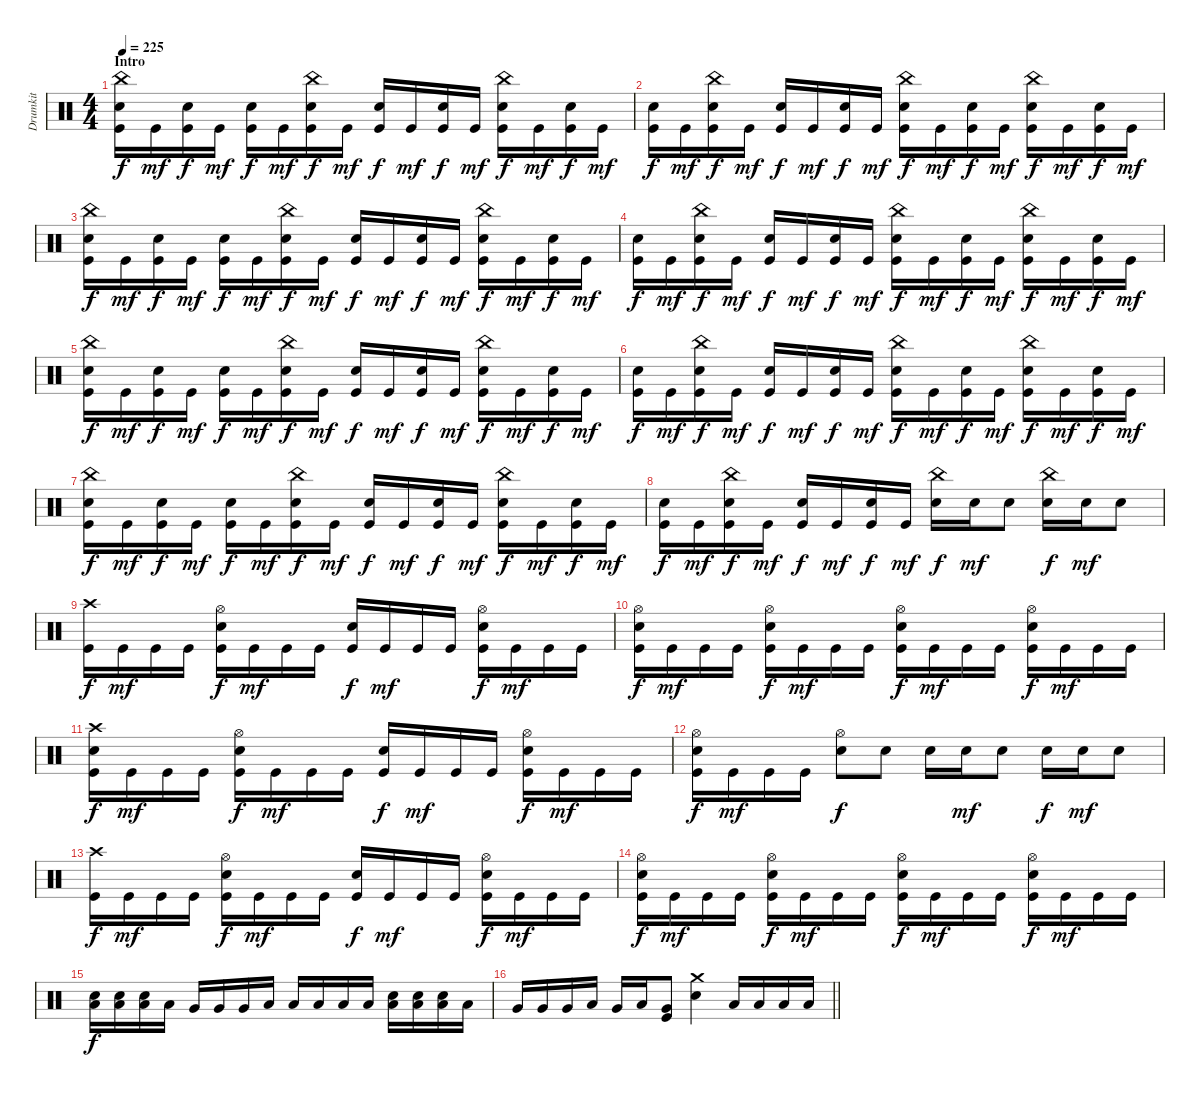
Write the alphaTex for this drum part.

\track ("Drumkit" "Drumkit") {instrument percussion}
\staff {score}
\articulation defaults
\ts (4 4)
\section ("" "Intro")
\tempo 225
\clef neutral
\ks c
("Snare (hit) 2" "Kick (hit)" "China (hit)").16{dy f} "Kick (hit)".16{dy mf} ("Snare (hit) 2" "Kick (hit)").16{dy f} "Kick (hit)".16{dy mf} ("Snare (hit) 2" "Kick (hit)").16{dy f} "Kick (hit)".16{dy mf} ("Snare (hit) 2" "Kick (hit)" "China (hit)").16{dy f} "Kick (hit)".16{dy mf} ("Snare (hit) 2" "Kick (hit)").16{dy f} "Kick (hit)".16{dy mf} ("Snare (hit) 2" "Kick (hit)").16{dy f} "Kick (hit)".16{dy mf} ("Snare (hit) 2" "Kick (hit)" "China (hit)").16{dy f} "Kick (hit)".16{dy mf} ("Snare (hit) 2" "Kick (hit)").16{dy f} "Kick (hit)".16{dy mf} |
("Snare (hit) 2" "Kick (hit)").16{dy f} "Kick (hit)".16{dy mf} ("Snare (hit) 2" "Kick (hit)" "China (hit)").16{dy f} "Kick (hit)".16{dy mf} ("Snare (hit) 2" "Kick (hit)").16{dy f} "Kick (hit)".16{dy mf} ("Snare (hit) 2" "Kick (hit)").16{dy f} "Kick (hit)".16{dy mf} ("Snare (hit) 2" "Kick (hit)" "China (hit)").16{dy f} "Kick (hit)".16{dy mf} ("Snare (hit) 2" "Kick (hit)").16{dy f} "Kick (hit)".16{dy mf} ("Snare (hit) 2" "Kick (hit)" "China (hit)").16{dy f} "Kick (hit)".16{dy mf} ("Snare (hit) 2" "Kick (hit)").16{dy f} "Kick (hit)".16{dy mf} |
("Snare (hit) 2" "Kick (hit)" "China (hit)").16{dy f} "Kick (hit)".16{dy mf} ("Snare (hit) 2" "Kick (hit)").16{dy f} "Kick (hit)".16{dy mf} ("Snare (hit) 2" "Kick (hit)").16{dy f} "Kick (hit)".16{dy mf} ("Snare (hit) 2" "Kick (hit)" "China (hit)").16{dy f} "Kick (hit)".16{dy mf} ("Snare (hit) 2" "Kick (hit)").16{dy f} "Kick (hit)".16{dy mf} ("Snare (hit) 2" "Kick (hit)").16{dy f} "Kick (hit)".16{dy mf} ("Snare (hit) 2" "Kick (hit)" "China (hit)").16{dy f} "Kick (hit)".16{dy mf} ("Snare (hit) 2" "Kick (hit)").16{dy f} "Kick (hit)".16{dy mf} |
("Snare (hit) 2" "Kick (hit)").16{dy f} "Kick (hit)".16{dy mf} ("Snare (hit) 2" "Kick (hit)" "China (hit)").16{dy f} "Kick (hit)".16{dy mf} ("Snare (hit) 2" "Kick (hit)").16{dy f} "Kick (hit)".16{dy mf} ("Snare (hit) 2" "Kick (hit)").16{dy f} "Kick (hit)".16{dy mf} ("Snare (hit) 2" "Kick (hit)" "China (hit)").16{dy f} "Kick (hit)".16{dy mf} ("Snare (hit) 2" "Kick (hit)").16{dy f} "Kick (hit)".16{dy mf} ("Snare (hit) 2" "Kick (hit)" "China (hit)").16{dy f} "Kick (hit)".16{dy mf} ("Snare (hit) 2" "Kick (hit)").16{dy f} "Kick (hit)".16{dy mf} |
("Snare (hit) 2" "Kick (hit)" "China (hit)").16{dy f} "Kick (hit)".16{dy mf} ("Snare (hit) 2" "Kick (hit)").16{dy f} "Kick (hit)".16{dy mf} ("Snare (hit) 2" "Kick (hit)").16{dy f} "Kick (hit)".16{dy mf} ("Snare (hit) 2" "Kick (hit)" "China (hit)").16{dy f} "Kick (hit)".16{dy mf} ("Snare (hit) 2" "Kick (hit)").16{dy f} "Kick (hit)".16{dy mf} ("Snare (hit) 2" "Kick (hit)").16{dy f} "Kick (hit)".16{dy mf} ("Snare (hit) 2" "Kick (hit)" "China (hit)").16{dy f} "Kick (hit)".16{dy mf} ("Snare (hit) 2" "Kick (hit)").16{dy f} "Kick (hit)".16{dy mf} |
("Snare (hit) 2" "Kick (hit)").16{dy f} "Kick (hit)".16{dy mf} ("Snare (hit) 2" "Kick (hit)" "China (hit)").16{dy f} "Kick (hit)".16{dy mf} ("Snare (hit) 2" "Kick (hit)").16{dy f} "Kick (hit)".16{dy mf} ("Snare (hit) 2" "Kick (hit)").16{dy f} "Kick (hit)".16{dy mf} ("Snare (hit) 2" "Kick (hit)" "China (hit)").16{dy f} "Kick (hit)".16{dy mf} ("Snare (hit) 2" "Kick (hit)").16{dy f} "Kick (hit)".16{dy mf} ("Snare (hit) 2" "Kick (hit)" "China (hit)").16{dy f} "Kick (hit)".16{dy mf} ("Snare (hit) 2" "Kick (hit)").16{dy f} "Kick (hit)".16{dy mf} |
("Snare (hit) 2" "Kick (hit)" "China (hit)").16{dy f} "Kick (hit)".16{dy mf} ("Snare (hit) 2" "Kick (hit)").16{dy f} "Kick (hit)".16{dy mf} ("Snare (hit) 2" "Kick (hit)").16{dy f} "Kick (hit)".16{dy mf} ("Snare (hit) 2" "Kick (hit)" "China (hit)").16{dy f} "Kick (hit)".16{dy mf} ("Snare (hit) 2" "Kick (hit)").16{dy f} "Kick (hit)".16{dy mf} ("Snare (hit) 2" "Kick (hit)").16{dy f} "Kick (hit)".16{dy mf} ("Snare (hit) 2" "Kick (hit)" "China (hit)").16{dy f} "Kick (hit)".16{dy mf} ("Snare (hit) 2" "Kick (hit)").16{dy f} "Kick (hit)".16{dy mf} |
("Snare (hit) 2" "Kick (hit)").16{dy f} "Kick (hit)".16{dy mf} ("Snare (hit) 2" "Kick (hit)" "China (hit)").16{dy f} "Kick (hit)".16{dy mf} ("Snare (hit) 2" "Kick (hit)").16{dy f} "Kick (hit)".16{dy mf} ("Snare (hit) 2" "Kick (hit)").16{dy f} "Kick (hit)".16{dy mf} ("Snare (hit) 2" "China (hit)").16{dy f} "Snare (hit) 2".16{dy mf} "Snare (hit) 2".8 ("Snare (hit) 2" "China (hit)").16{dy f} "Snare (hit) 2".16{dy mf} "Snare (hit) 2".8 |
("Kick (hit)" "Crash high (hit)").16{dy f} "Kick (hit)".16{dy mf} "Kick (hit)".16 "Kick (hit)".16 ("Snare (hit) 2" "Kick (hit)" "Hi-Hat (open)").16{dy f} "Kick (hit)".16{dy mf} "Kick (hit)".16 "Kick (hit)".16 ("Snare (hit) 2" "Kick (hit)").16{dy f} "Kick (hit)".16{dy mf} "Kick (hit)".16 "Kick (hit)".16 ("Snare (hit) 2" "Kick (hit)" "Hi-Hat (open)").16{dy f} "Kick (hit)".16{dy mf} "Kick (hit)".16 "Kick (hit)".16 |
("Snare (hit) 2" "Kick (hit)" "Hi-Hat (open)").16{dy f} "Kick (hit)".16{dy mf} "Kick (hit)".16 "Kick (hit)".16 ("Snare (hit) 2" "Kick (hit)" "Hi-Hat (open)").16{dy f} "Kick (hit)".16{dy mf} "Kick (hit)".16 "Kick (hit)".16 ("Snare (hit) 2" "Kick (hit)" "Hi-Hat (open)").16{dy f} "Kick (hit)".16{dy mf} "Kick (hit)".16 "Kick (hit)".16 ("Snare (hit) 2" "Kick (hit)" "Hi-Hat (open)").16{dy f} "Kick (hit)".16{dy mf} "Kick (hit)".16 "Kick (hit)".16 |
("Kick (hit)" "Crash high (hit)" "Snare (hit) 2").16{dy f} "Kick (hit)".16{dy mf} "Kick (hit)".16 "Kick (hit)".16 ("Snare (hit) 2" "Kick (hit)" "Hi-Hat (open)").16{dy f} "Kick (hit)".16{dy mf} "Kick (hit)".16 "Kick (hit)".16 ("Snare (hit) 2" "Kick (hit)").16{dy f} "Kick (hit)".16{dy mf} "Kick (hit)".16 "Kick (hit)".16 ("Snare (hit) 2" "Kick (hit)" "Hi-Hat (open)").16{dy f} "Kick (hit)".16{dy mf} "Kick (hit)".16 "Kick (hit)".16 |
("Snare (hit) 2" "Kick (hit)" "Hi-Hat (open)").16{dy f} "Kick (hit)".16{dy mf} "Kick (hit)".16 "Kick (hit)".16 ("Snare (hit) 2" "Hi-Hat (open)").8{dy f} "Snare (hit) 2".8 "Snare (hit) 2".16 "Snare (hit) 2".16{dy mf} "Snare (hit) 2".8 "Snare (hit) 2".16{dy f} "Snare (hit) 2".16{dy mf} "Snare (hit) 2".8 |
("Kick (hit)" "Crash high (hit)").16{dy f} "Kick (hit)".16{dy mf} "Kick (hit)".16 "Kick (hit)".16 ("Snare (hit) 2" "Kick (hit)" "Hi-Hat (open)").16{dy f} "Kick (hit)".16{dy mf} "Kick (hit)".16 "Kick (hit)".16 ("Snare (hit) 2" "Kick (hit)").16{dy f} "Kick (hit)".16{dy mf} "Kick (hit)".16 "Kick (hit)".16 ("Snare (hit) 2" "Kick (hit)" "Hi-Hat (open)").16{dy f} "Kick (hit)".16{dy mf} "Kick (hit)".16 "Kick (hit)".16 |
("Snare (hit) 2" "Kick (hit)" "Hi-Hat (open)").16{dy f} "Kick (hit)".16{dy mf} "Kick (hit)".16 "Kick (hit)".16 ("Snare (hit) 2" "Kick (hit)" "Hi-Hat (open)").16{dy f} "Kick (hit)".16{dy mf} "Kick (hit)".16 "Kick (hit)".16 ("Snare (hit) 2" "Kick (hit)" "Hi-Hat (open)").16{dy f} "Kick (hit)".16{dy mf} "Kick (hit)".16 "Kick (hit)".16 ("Snare (hit) 2" "Kick (hit)" "Hi-Hat (open)").16{dy f} "Kick (hit)".16{dy mf} "Kick (hit)".16 "Kick (hit)".16 |
("Snare (hit) 2" "Low Tom (hit)").16{dy f} ("Snare (hit) 2" "Low Tom (hit)").16 ("Snare (hit) 2" "Low Tom (hit)").16 "Low Tom (hit)".16 "Very Low Tom (hit)".16 "Very Low Tom (hit)".16 "Very Low Tom (hit)".16 "Low Floor Tom (hit)".16 "Low Floor Tom (hit)".16 "Low Floor Tom (hit)".16 "Low Floor Tom (hit)".16 "Low Floor Tom (hit)".16 ("Low Tom (hit)" "Snare (hit) 2").16 ("Low Tom (hit)" "Snare (hit) 2").16 ("Low Tom (hit)" "Snare (hit) 2").16 "Low Tom (hit)".16 |
\barLineRight lightlight "Very Low Tom (hit)".16 "Very Low Tom (hit)".16 "Very Low Tom (hit)".16 "Low Floor Tom (hit)".16 "Very Low Tom (hit)".16 "Low Floor Tom (hit)".16
("Very Low Tom (hit)" "Kick (hit)").8 ("Snare (hit) 2" "Crash medium (hit)").4 "Low Tom (hit)".16 "Low Tom (hit)".16 "Low Tom (hit)".16 "Low Tom (hit)".16
